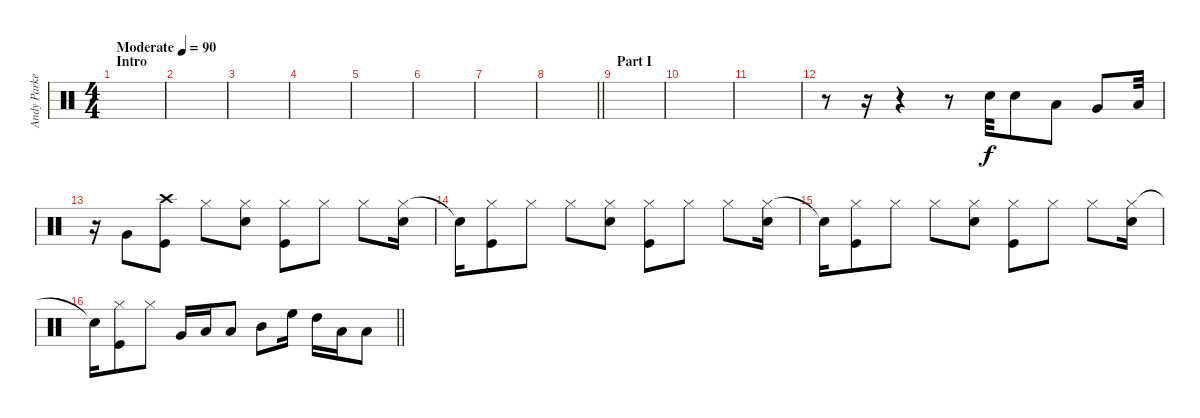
\track ("Andy Parker" "Andy Parke") {instrument percussion}
\staff {score}
\articulation defaults
\ts (4 4)
\section ("" "Intro")
\tempo (90 "Moderate")
\clef neutral
\ks c
|
|
|
|
|
|
|
\barLineRight lightlight
|
\section ("" "Part I")
|
|
|
r.8 r.16 r.4 r.8 "Snare (hit) 2".32 "Snare (hit) 2".8 "Low Tom (hit)".8 "Very Low Tom (hit)".8 "Low Floor Tom (hit)".32 |
r.16 "Very Low Tom (hit)".8 ("Crash high (hit)" "Kick (hit)").8 "Hi-Hat (closed)".8 ("Hi-Hat (closed)" "Snare (hit) 2").8 ("Hi-Hat (closed)" "Kick (hit)").8 "Hi-Hat (closed)".8 "Hi-Hat (closed)".8 ("Hi-Hat (closed)" "Snare (hit) 2").16 |
"Snare (hit)"{t}.16 ("Hi-Hat (closed)" "Kick (hit)").8 "Hi-Hat (closed)".8 "Hi-Hat (closed)".8 ("Hi-Hat (closed)" "Snare (hit) 2").8 ("Hi-Hat (closed)" "Kick (hit)").8 "Hi-Hat (closed)".8 "Hi-Hat (closed)".8 ("Hi-Hat (closed)" "Snare (hit) 2").16 |
"Snare (hit)"{t}.16 ("Hi-Hat (closed)" "Kick (hit)").8 "Hi-Hat (closed)".8 "Hi-Hat (closed)".8 ("Hi-Hat (closed)" "Snare (hit) 2").8 ("Hi-Hat (closed)" "Kick (hit)").8 "Hi-Hat (closed)".8 "Hi-Hat (closed)".8 ("Hi-Hat (closed)" "Snare (hit) 2").16 |
\barLineRight lightlight "Snare (hit)"{t}.16
("Hi-Hat (closed)" "Kick (hit)").8 "Hi-Hat (closed)".8 "Very Low Tom (hit)".16 "Low Tom (hit)".16 "Low Floor Tom (hit)".8 "Mid Tom (hit)".8 "High Floor Tom (hit)".16 "High Tom (hit)".16 "Low Tom (hit)".16 "Low Floor Tom (hit)".8
